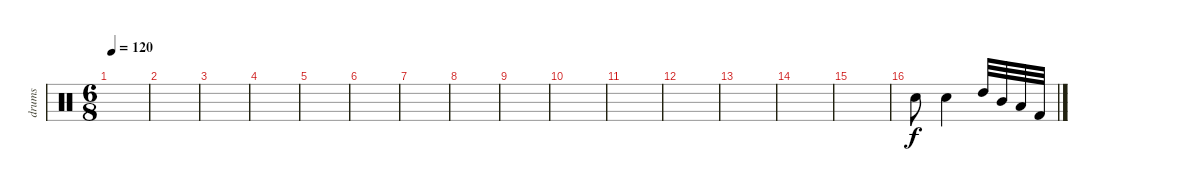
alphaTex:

\track ("drums" "drums") {instrument percussion}
\staff {score}
\articulation defaults
\ts (6 8)
\tempo 120
\clef neutral
\ks c
|
|
|
|
|
|
|
|
|
|
|
|
|
|
|
"Snare (hit) 2".8 "Snare (hit) 2".4 "High Tom (hit)".32 "Mid Tom (hit)".32 "Low Tom (hit)".32 "Kick (hit) 2".32
